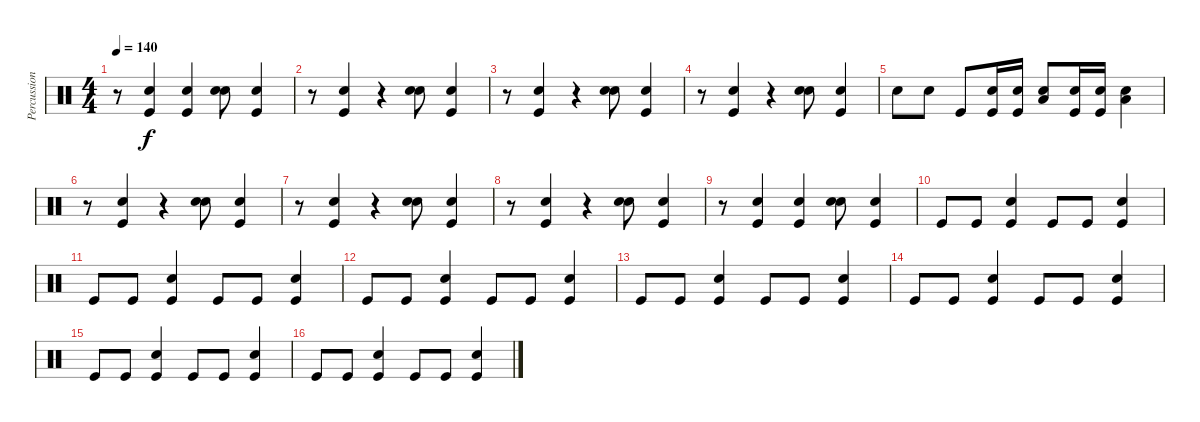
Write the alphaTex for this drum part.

\track ("Percussions" "Percussion") {instrument percussion}
\staff {score}
\articulation defaults
\ts (4 4)
\tempo 140
\clef neutral
\ks c
r.8{dy f} ("Kick (hit)" "Electric Snare (hit)").4 ("Kick (hit)" "Electric Snare (hit)").4 ("Snare (hit) 2" "Electric Snare (hit)").8 ("Kick (hit)" "Electric Snare (hit)").4 |
r.8 ("Kick (hit)" "Electric Snare (hit)").4 r.4 ("Snare (hit) 2" "Electric Snare (hit)").8 ("Kick (hit)" "Electric Snare (hit)").4 |
r.8 ("Kick (hit)" "Electric Snare (hit)").4 r.4 ("Snare (hit) 2" "Electric Snare (hit)").8 ("Kick (hit)" "Electric Snare (hit)").4 |
r.8 ("Kick (hit)" "Electric Snare (hit)").4 r.4 ("Snare (hit) 2" "Electric Snare (hit)").8 ("Kick (hit)" "Electric Snare (hit)").4 |
"Electric Snare (hit)".8 "Electric Snare (hit)".8 "Kick (hit)".8 ("Electric Snare (hit)" "Kick (hit)").16 ("Electric Snare (hit)" "Kick (hit)").16 ("Electric Snare (hit)" "Low Tom (hit)").8 ("Electric Snare (hit)" "Kick (hit)").16 ("Electric Snare (hit)" "Kick (hit)").16 ("Electric Snare (hit)" "Low Tom (hit)").4 |
r.8 ("Kick (hit)" "Electric Snare (hit)").4 r.4 ("Snare (hit) 2" "Electric Snare (hit)").8 ("Kick (hit)" "Electric Snare (hit)").4 |
r.8 ("Kick (hit)" "Electric Snare (hit)").4 r.4 ("Snare (hit) 2" "Electric Snare (hit)").8 ("Kick (hit)" "Electric Snare (hit)").4 |
r.8 ("Kick (hit)" "Electric Snare (hit)").4 r.4 ("Snare (hit) 2" "Electric Snare (hit)").8 ("Kick (hit)" "Electric Snare (hit)").4 |
r.8 ("Kick (hit)" "Electric Snare (hit)").4 ("Kick (hit)" "Electric Snare (hit)").4 ("Snare (hit) 2" "Electric Snare (hit)").8 ("Kick (hit)" "Electric Snare (hit)").4 |
"Kick (hit)".8 "Kick (hit)".8 ("Kick (hit)" "Electric Snare (hit)").4 "Kick (hit)".8 "Kick (hit)".8 ("Kick (hit)" "Electric Snare (hit)").4 |
"Kick (hit)".8 "Kick (hit)".8 ("Kick (hit)" "Electric Snare (hit)").4 "Kick (hit)".8 "Kick (hit)".8 ("Kick (hit)" "Electric Snare (hit)").4 |
"Kick (hit)".8 "Kick (hit)".8 ("Kick (hit)" "Electric Snare (hit)").4 "Kick (hit)".8 "Kick (hit)".8 ("Kick (hit)" "Electric Snare (hit)").4 |
"Kick (hit)".8 "Kick (hit)".8 ("Kick (hit)" "Electric Snare (hit)").4 "Kick (hit)".8 "Kick (hit)".8 ("Kick (hit)" "Electric Snare (hit)").4 |
"Kick (hit)".8 "Kick (hit)".8 ("Kick (hit)" "Electric Snare (hit)").4 "Kick (hit)".8 "Kick (hit)".8 ("Kick (hit)" "Electric Snare (hit)").4 |
"Kick (hit)".8 "Kick (hit)".8 ("Kick (hit)" "Electric Snare (hit)").4 "Kick (hit)".8 "Kick (hit)".8 ("Kick (hit)" "Electric Snare (hit)").4 |
"Kick (hit)".8 "Kick (hit)".8 ("Kick (hit)" "Electric Snare (hit)").4 "Kick (hit)".8 "Kick (hit)".8 ("Kick (hit)" "Electric Snare (hit)").4
